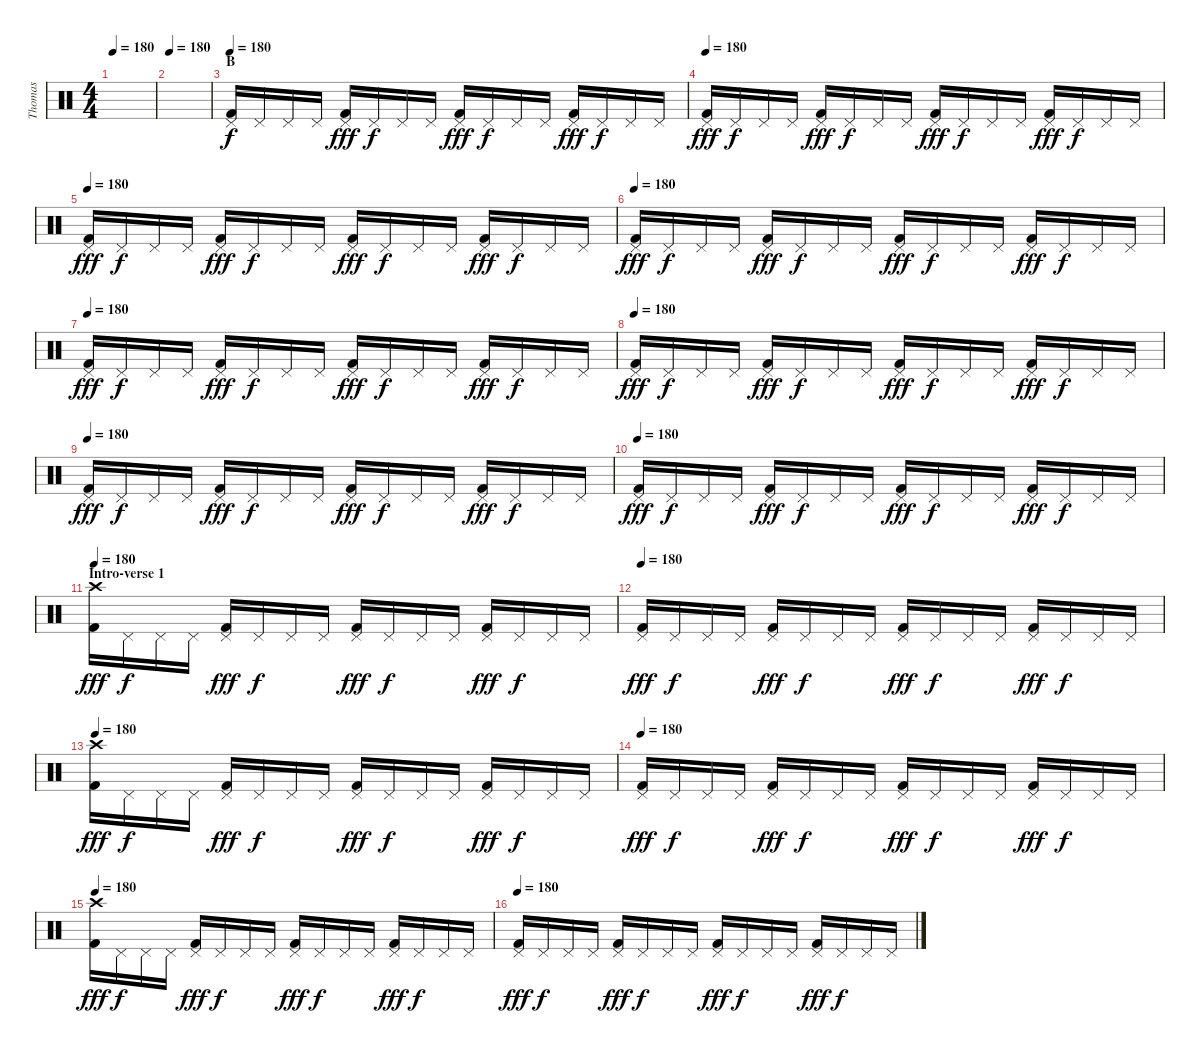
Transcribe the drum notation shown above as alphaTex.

\track ("Thomas" "Thomas") {instrument percussion}
\staff {score}
\articulation defaults
\ts (4 4)
\tempo 180
\clef neutral
\ks c
|
\tempo 180
|
\section ("" "B")
\tempo 180
("Pedal Hi-Hat (hit)" "Kick (hit) 2").16 "Pedal Hi-Hat (hit)".16{dy f} "Pedal Hi-Hat (hit)".16 "Pedal Hi-Hat (hit)".16 ("Pedal Hi-Hat (hit)" "Kick (hit) 2").16{dy fff} "Pedal Hi-Hat (hit)".16{dy f} "Pedal Hi-Hat (hit)".16 "Pedal Hi-Hat (hit)".16 ("Pedal Hi-Hat (hit)" "Kick (hit) 2").16{dy fff} "Pedal Hi-Hat (hit)".16{dy f} "Pedal Hi-Hat (hit)".16 "Pedal Hi-Hat (hit)".16 ("Pedal Hi-Hat (hit)" "Kick (hit) 2").16{dy fff} "Pedal Hi-Hat (hit)".16{dy f} "Pedal Hi-Hat (hit)".16 "Pedal Hi-Hat (hit)".16 |
\tempo 180
("Pedal Hi-Hat (hit)" "Kick (hit) 2").16{dy fff} "Pedal Hi-Hat (hit)".16{dy f} "Pedal Hi-Hat (hit)".16 "Pedal Hi-Hat (hit)".16 ("Pedal Hi-Hat (hit)" "Kick (hit) 2").16{dy fff} "Pedal Hi-Hat (hit)".16{dy f} "Pedal Hi-Hat (hit)".16 "Pedal Hi-Hat (hit)".16 ("Pedal Hi-Hat (hit)" "Kick (hit) 2").16{dy fff} "Pedal Hi-Hat (hit)".16{dy f} "Pedal Hi-Hat (hit)".16 "Pedal Hi-Hat (hit)".16 ("Pedal Hi-Hat (hit)" "Kick (hit) 2").16{dy fff} "Pedal Hi-Hat (hit)".16{dy f} "Pedal Hi-Hat (hit)".16 "Pedal Hi-Hat (hit)".16 |
\tempo 180
("Pedal Hi-Hat (hit)" "Kick (hit) 2").16{dy fff} "Pedal Hi-Hat (hit)".16{dy f} "Pedal Hi-Hat (hit)".16 "Pedal Hi-Hat (hit)".16 ("Pedal Hi-Hat (hit)" "Kick (hit) 2").16{dy fff} "Pedal Hi-Hat (hit)".16{dy f} "Pedal Hi-Hat (hit)".16 "Pedal Hi-Hat (hit)".16 ("Pedal Hi-Hat (hit)" "Kick (hit) 2").16{dy fff} "Pedal Hi-Hat (hit)".16{dy f} "Pedal Hi-Hat (hit)".16 "Pedal Hi-Hat (hit)".16 ("Pedal Hi-Hat (hit)" "Kick (hit) 2").16{dy fff} "Pedal Hi-Hat (hit)".16{dy f} "Pedal Hi-Hat (hit)".16 "Pedal Hi-Hat (hit)".16 |
\tempo 180
("Pedal Hi-Hat (hit)" "Kick (hit) 2").16{dy fff} "Pedal Hi-Hat (hit)".16{dy f} "Pedal Hi-Hat (hit)".16 "Pedal Hi-Hat (hit)".16 ("Pedal Hi-Hat (hit)" "Kick (hit) 2").16{dy fff} "Pedal Hi-Hat (hit)".16{dy f} "Pedal Hi-Hat (hit)".16 "Pedal Hi-Hat (hit)".16 ("Pedal Hi-Hat (hit)" "Kick (hit) 2").16{dy fff} "Pedal Hi-Hat (hit)".16{dy f} "Pedal Hi-Hat (hit)".16 "Pedal Hi-Hat (hit)".16 ("Pedal Hi-Hat (hit)" "Kick (hit) 2").16{dy fff} "Pedal Hi-Hat (hit)".16{dy f} "Pedal Hi-Hat (hit)".16 "Pedal Hi-Hat (hit)".16 |
\tempo 180
("Pedal Hi-Hat (hit)" "Kick (hit) 2").16{dy fff} "Pedal Hi-Hat (hit)".16{dy f} "Pedal Hi-Hat (hit)".16 "Pedal Hi-Hat (hit)".16 ("Pedal Hi-Hat (hit)" "Kick (hit) 2").16{dy fff} "Pedal Hi-Hat (hit)".16{dy f} "Pedal Hi-Hat (hit)".16 "Pedal Hi-Hat (hit)".16 ("Pedal Hi-Hat (hit)" "Kick (hit) 2").16{dy fff} "Pedal Hi-Hat (hit)".16{dy f} "Pedal Hi-Hat (hit)".16 "Pedal Hi-Hat (hit)".16 ("Pedal Hi-Hat (hit)" "Kick (hit) 2").16{dy fff} "Pedal Hi-Hat (hit)".16{dy f} "Pedal Hi-Hat (hit)".16 "Pedal Hi-Hat (hit)".16 |
\tempo 180
("Pedal Hi-Hat (hit)" "Kick (hit) 2").16{dy fff} "Pedal Hi-Hat (hit)".16{dy f} "Pedal Hi-Hat (hit)".16 "Pedal Hi-Hat (hit)".16 ("Pedal Hi-Hat (hit)" "Kick (hit) 2").16{dy fff} "Pedal Hi-Hat (hit)".16{dy f} "Pedal Hi-Hat (hit)".16 "Pedal Hi-Hat (hit)".16 ("Pedal Hi-Hat (hit)" "Kick (hit) 2").16{dy fff} "Pedal Hi-Hat (hit)".16{dy f} "Pedal Hi-Hat (hit)".16 "Pedal Hi-Hat (hit)".16 ("Pedal Hi-Hat (hit)" "Kick (hit) 2").16{dy fff} "Pedal Hi-Hat (hit)".16{dy f} "Pedal Hi-Hat (hit)".16 "Pedal Hi-Hat (hit)".16 |
\tempo 180
("Pedal Hi-Hat (hit)" "Kick (hit) 2").16{dy fff} "Pedal Hi-Hat (hit)".16{dy f} "Pedal Hi-Hat (hit)".16 "Pedal Hi-Hat (hit)".16 ("Pedal Hi-Hat (hit)" "Kick (hit) 2").16{dy fff} "Pedal Hi-Hat (hit)".16{dy f} "Pedal Hi-Hat (hit)".16 "Pedal Hi-Hat (hit)".16 ("Pedal Hi-Hat (hit)" "Kick (hit) 2").16{dy fff} "Pedal Hi-Hat (hit)".16{dy f} "Pedal Hi-Hat (hit)".16 "Pedal Hi-Hat (hit)".16 ("Pedal Hi-Hat (hit)" "Kick (hit) 2").16{dy fff} "Pedal Hi-Hat (hit)".16{dy f} "Pedal Hi-Hat (hit)".16 "Pedal Hi-Hat (hit)".16 |
\tempo 180
("Pedal Hi-Hat (hit)" "Kick (hit) 2").16{dy fff} "Pedal Hi-Hat (hit)".16{dy f} "Pedal Hi-Hat (hit)".16 "Pedal Hi-Hat (hit)".16 ("Pedal Hi-Hat (hit)" "Kick (hit) 2").16{dy fff} "Pedal Hi-Hat (hit)".16{dy f} "Pedal Hi-Hat (hit)".16 "Pedal Hi-Hat (hit)".16 ("Pedal Hi-Hat (hit)" "Kick (hit) 2").16{dy fff} "Pedal Hi-Hat (hit)".16{dy f} "Pedal Hi-Hat (hit)".16 "Pedal Hi-Hat (hit)".16 ("Pedal Hi-Hat (hit)" "Kick (hit) 2").16{dy fff} "Pedal Hi-Hat (hit)".16{dy f} "Pedal Hi-Hat (hit)".16 "Pedal Hi-Hat (hit)".16 |
\section ("" "Intro-verse 1")
\tempo 180
("Crash high (hit)" "Kick (hit) 2").16{dy fff} "Pedal Hi-Hat (hit)".16{dy f} "Pedal Hi-Hat (hit)".16 "Pedal Hi-Hat (hit)".16 ("Pedal Hi-Hat (hit)" "Kick (hit) 2").16{dy fff} "Pedal Hi-Hat (hit)".16{dy f} "Pedal Hi-Hat (hit)".16 "Pedal Hi-Hat (hit)".16 ("Pedal Hi-Hat (hit)" "Kick (hit) 2").16{dy fff} "Pedal Hi-Hat (hit)".16{dy f} "Pedal Hi-Hat (hit)".16 "Pedal Hi-Hat (hit)".16 ("Pedal Hi-Hat (hit)" "Kick (hit) 2").16{dy fff} "Pedal Hi-Hat (hit)".16{dy f} "Pedal Hi-Hat (hit)".16 "Pedal Hi-Hat (hit)".16 |
\tempo 180
("Pedal Hi-Hat (hit)" "Kick (hit) 2").16{dy fff} "Pedal Hi-Hat (hit)".16{dy f} "Pedal Hi-Hat (hit)".16 "Pedal Hi-Hat (hit)".16 ("Pedal Hi-Hat (hit)" "Kick (hit) 2").16{dy fff} "Pedal Hi-Hat (hit)".16{dy f} "Pedal Hi-Hat (hit)".16 "Pedal Hi-Hat (hit)".16 ("Pedal Hi-Hat (hit)" "Kick (hit) 2").16{dy fff} "Pedal Hi-Hat (hit)".16{dy f} "Pedal Hi-Hat (hit)".16 "Pedal Hi-Hat (hit)".16 ("Pedal Hi-Hat (hit)" "Kick (hit) 2").16{dy fff} "Pedal Hi-Hat (hit)".16{dy f} "Pedal Hi-Hat (hit)".16 "Pedal Hi-Hat (hit)".16 |
\tempo 180
("Crash high (hit)" "Kick (hit) 2").16{dy fff} "Pedal Hi-Hat (hit)".16{dy f} "Pedal Hi-Hat (hit)".16 "Pedal Hi-Hat (hit)".16 ("Pedal Hi-Hat (hit)" "Kick (hit) 2").16{dy fff} "Pedal Hi-Hat (hit)".16{dy f} "Pedal Hi-Hat (hit)".16 "Pedal Hi-Hat (hit)".16 ("Pedal Hi-Hat (hit)" "Kick (hit) 2").16{dy fff} "Pedal Hi-Hat (hit)".16{dy f} "Pedal Hi-Hat (hit)".16 "Pedal Hi-Hat (hit)".16 ("Pedal Hi-Hat (hit)" "Kick (hit) 2").16{dy fff} "Pedal Hi-Hat (hit)".16{dy f} "Pedal Hi-Hat (hit)".16 "Pedal Hi-Hat (hit)".16 |
\tempo 180
("Pedal Hi-Hat (hit)" "Kick (hit) 2").16{dy fff} "Pedal Hi-Hat (hit)".16{dy f} "Pedal Hi-Hat (hit)".16 "Pedal Hi-Hat (hit)".16 ("Pedal Hi-Hat (hit)" "Kick (hit) 2").16{dy fff} "Pedal Hi-Hat (hit)".16{dy f} "Pedal Hi-Hat (hit)".16 "Pedal Hi-Hat (hit)".16 ("Pedal Hi-Hat (hit)" "Kick (hit) 2").16{dy fff} "Pedal Hi-Hat (hit)".16{dy f} "Pedal Hi-Hat (hit)".16 "Pedal Hi-Hat (hit)".16 ("Pedal Hi-Hat (hit)" "Kick (hit) 2").16{dy fff} "Pedal Hi-Hat (hit)".16{dy f} "Pedal Hi-Hat (hit)".16 "Pedal Hi-Hat (hit)".16 |
\tempo 180
("Crash high (hit)" "Kick (hit) 2").16{dy fff} "Pedal Hi-Hat (hit)".16{dy f} "Pedal Hi-Hat (hit)".16 "Pedal Hi-Hat (hit)".16 ("Pedal Hi-Hat (hit)" "Kick (hit) 2").16{dy fff} "Pedal Hi-Hat (hit)".16{dy f} "Pedal Hi-Hat (hit)".16 "Pedal Hi-Hat (hit)".16 ("Pedal Hi-Hat (hit)" "Kick (hit) 2").16{dy fff} "Pedal Hi-Hat (hit)".16{dy f} "Pedal Hi-Hat (hit)".16 "Pedal Hi-Hat (hit)".16 ("Pedal Hi-Hat (hit)" "Kick (hit) 2").16{dy fff} "Pedal Hi-Hat (hit)".16{dy f} "Pedal Hi-Hat (hit)".16 "Pedal Hi-Hat (hit)".16 |
\tempo 180
("Pedal Hi-Hat (hit)" "Kick (hit) 2").16{dy fff} "Pedal Hi-Hat (hit)".16{dy f} "Pedal Hi-Hat (hit)".16 "Pedal Hi-Hat (hit)".16 ("Pedal Hi-Hat (hit)" "Kick (hit) 2").16{dy fff} "Pedal Hi-Hat (hit)".16{dy f} "Pedal Hi-Hat (hit)".16 "Pedal Hi-Hat (hit)".16 ("Pedal Hi-Hat (hit)" "Kick (hit) 2").16{dy fff} "Pedal Hi-Hat (hit)".16{dy f} "Pedal Hi-Hat (hit)".16 "Pedal Hi-Hat (hit)".16 ("Pedal Hi-Hat (hit)" "Kick (hit) 2").16{dy fff} "Pedal Hi-Hat (hit)".16{dy f} "Pedal Hi-Hat (hit)".16 "Pedal Hi-Hat (hit)".16
